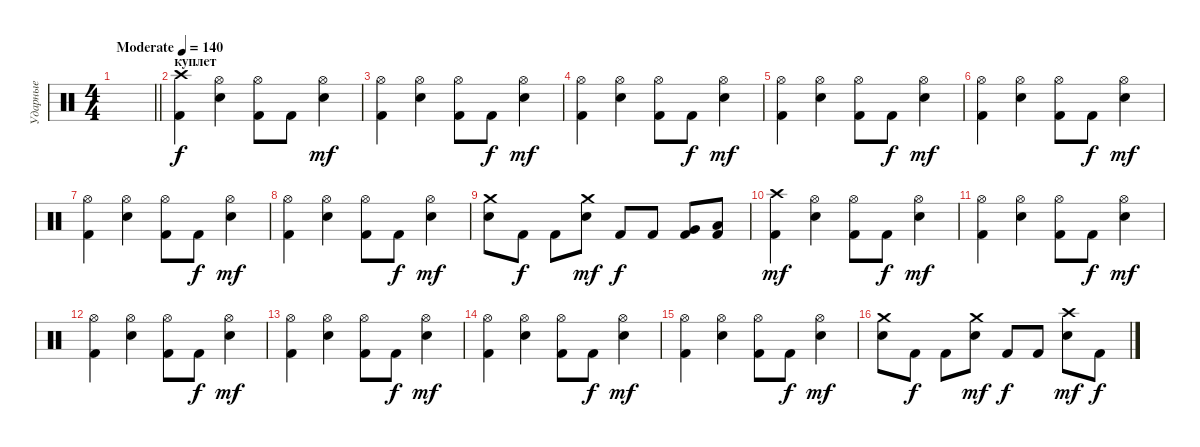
\track ("Ударные" "Ударные") {instrument percussion}
\staff {score}
\articulation defaults
\ts (4 4)
\tempo (140 "Moderate")
\clef neutral
\barLineRight lightlight
\ks c
|
\section ("" "куплет")
("Kick (hit) 2" "Crash high (hit)").4 ("Electric Snare (hit)" "Hi-Hat (open)").4 ("Kick (hit) 2" "Hi-Hat (open)").8 "Kick (hit) 2".8{dy f} ("Electric Snare (hit)" "Hi-Hat (open)").4{dy mf} |
("Kick (hit) 2" "Hi-Hat (open)").4 ("Electric Snare (hit)" "Hi-Hat (open)").4 ("Kick (hit) 2" "Hi-Hat (open)").8 "Kick (hit) 2".8{dy f} ("Electric Snare (hit)" "Hi-Hat (open)").4{dy mf} |
("Kick (hit) 2" "Hi-Hat (open)").4 ("Electric Snare (hit)" "Hi-Hat (open)").4 ("Kick (hit) 2" "Hi-Hat (open)").8 "Kick (hit) 2".8{dy f} ("Electric Snare (hit)" "Hi-Hat (open)").4{dy mf} |
("Kick (hit) 2" "Hi-Hat (open)").4 ("Electric Snare (hit)" "Hi-Hat (open)").4 ("Kick (hit) 2" "Hi-Hat (open)").8 "Kick (hit) 2".8{dy f} ("Electric Snare (hit)" "Hi-Hat (open)").4{dy mf} |
("Kick (hit) 2" "Hi-Hat (open)").4 ("Electric Snare (hit)" "Hi-Hat (open)").4 ("Kick (hit) 2" "Hi-Hat (open)").8 "Kick (hit) 2".8{dy f} ("Electric Snare (hit)" "Hi-Hat (open)").4{dy mf} |
("Kick (hit) 2" "Hi-Hat (open)").4 ("Electric Snare (hit)" "Hi-Hat (open)").4 ("Kick (hit) 2" "Hi-Hat (open)").8 "Kick (hit) 2".8{dy f} ("Electric Snare (hit)" "Hi-Hat (open)").4{dy mf} |
("Kick (hit) 2" "Hi-Hat (open)").4 ("Electric Snare (hit)" "Hi-Hat (open)").4 ("Kick (hit) 2" "Hi-Hat (open)").8 "Kick (hit) 2".8{dy f} ("Electric Snare (hit)" "Hi-Hat (open)").4{dy mf} |
("Electric Snare (hit)" "Crash medium (hit)").8 "Kick (hit) 2".8{dy f} "Kick (hit) 2".8 ("Electric Snare (hit)" "Crash medium (hit)").8{dy mf} "Kick (hit) 2".8{dy f} "Kick (hit) 2".8 ("Kick (hit) 2" "Very Low Tom (hit)").8 ("Kick (hit) 2" "Low Floor Tom (hit)").8 |
("Kick (hit) 2" "Crash high (hit)").4{dy mf} ("Electric Snare (hit)" "Hi-Hat (open)").4 ("Kick (hit) 2" "Hi-Hat (open)").8 "Kick (hit) 2".8{dy f} ("Electric Snare (hit)" "Hi-Hat (open)").4{dy mf} |
("Kick (hit) 2" "Hi-Hat (open)").4 ("Electric Snare (hit)" "Hi-Hat (open)").4 ("Kick (hit) 2" "Hi-Hat (open)").8 "Kick (hit) 2".8{dy f} ("Electric Snare (hit)" "Hi-Hat (open)").4{dy mf} |
("Kick (hit) 2" "Hi-Hat (open)").4 ("Electric Snare (hit)" "Hi-Hat (open)").4 ("Kick (hit) 2" "Hi-Hat (open)").8 "Kick (hit) 2".8{dy f} ("Electric Snare (hit)" "Hi-Hat (open)").4{dy mf} |
("Kick (hit) 2" "Hi-Hat (open)").4 ("Electric Snare (hit)" "Hi-Hat (open)").4 ("Kick (hit) 2" "Hi-Hat (open)").8 "Kick (hit) 2".8{dy f} ("Electric Snare (hit)" "Hi-Hat (open)").4{dy mf} |
("Kick (hit) 2" "Hi-Hat (open)").4 ("Electric Snare (hit)" "Hi-Hat (open)").4 ("Kick (hit) 2" "Hi-Hat (open)").8 "Kick (hit) 2".8{dy f} ("Electric Snare (hit)" "Hi-Hat (open)").4{dy mf} |
("Kick (hit) 2" "Hi-Hat (open)").4 ("Electric Snare (hit)" "Hi-Hat (open)").4 ("Kick (hit) 2" "Hi-Hat (open)").8 "Kick (hit) 2".8{dy f} ("Electric Snare (hit)" "Hi-Hat (open)").4{dy mf} |
("Electric Snare (hit)" "Crash medium (hit)").8 "Kick (hit) 2".8{dy f} "Kick (hit) 2".8 ("Electric Snare (hit)" "Crash medium (hit)").8{dy mf} "Kick (hit) 2".8{dy f} "Kick (hit) 2".8 ("Electric Snare (hit)" "Crash high (hit)").8{dy mf} "Kick (hit) 2".8{dy f}
